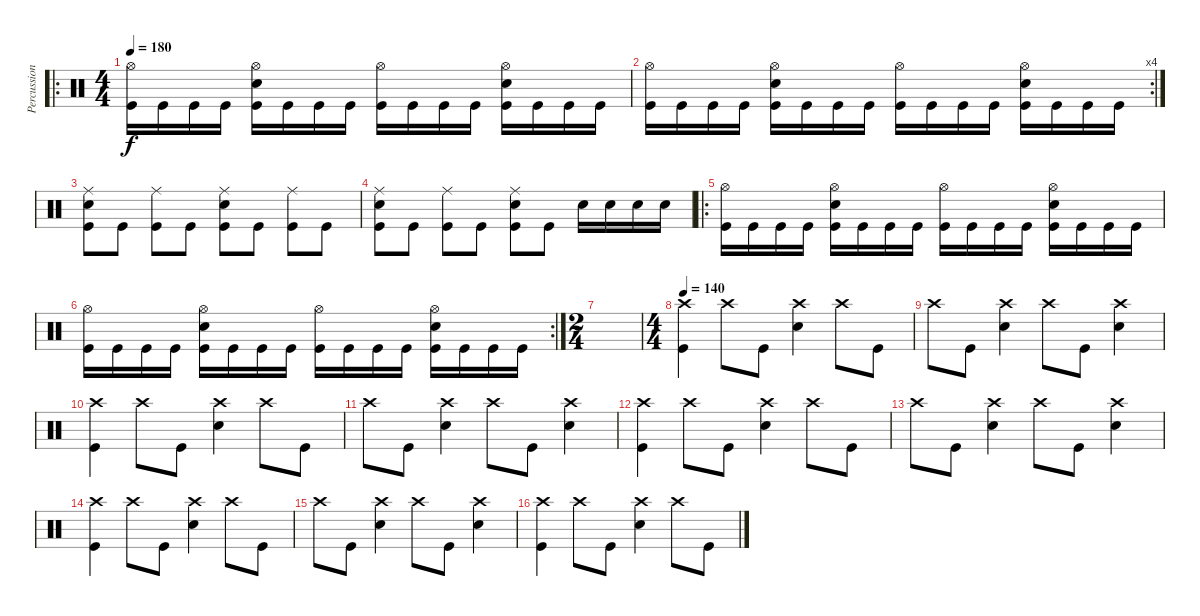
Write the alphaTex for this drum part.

\track ("Percussion" "Percussion") {instrument percussion}
\staff {score}
\articulation defaults
\ro
\ts (4 4)
\tempo 180
\clef neutral
\ks c
("Hi-Hat (open)" "Kick (hit)").16{dy f} "Kick (hit)".16 "Kick (hit)".16 "Kick (hit)".16 ("Hi-Hat (open)" "Snare (hit) 2" "Kick (hit)").16 "Kick (hit)".16 "Kick (hit)".16 "Kick (hit)".16 ("Hi-Hat (open)" "Kick (hit)").16 "Kick (hit)".16 "Kick (hit)".16 "Kick (hit)".16 ("Hi-Hat (open)" "Snare (hit) 2" "Kick (hit)").16 "Kick (hit)".16 "Kick (hit)".16 "Kick (hit)".16 |
\rc 4
("Hi-Hat (open)" "Kick (hit)").16 "Kick (hit)".16 "Kick (hit)".16 "Kick (hit)".16 ("Hi-Hat (open)" "Snare (hit) 2" "Kick (hit)").16 "Kick (hit)".16 "Kick (hit)".16 "Kick (hit)".16 ("Hi-Hat (open)" "Kick (hit)").16 "Kick (hit)".16 "Kick (hit)".16 "Kick (hit)".16 ("Hi-Hat (open)" "Snare (hit) 2" "Kick (hit)").16 "Kick (hit)".16 "Kick (hit)".16 "Kick (hit)".16 |
("Ride (middle)" "Snare (hit) 2" "Kick (hit)").8 "Kick (hit)".8 ("Ride (middle)" "Kick (hit)").8 "Kick (hit)".8 ("Ride (middle)" "Snare (hit) 2" "Kick (hit)").8 "Kick (hit)".8 ("Ride (middle)" "Kick (hit)").8 "Kick (hit)".8 |
("Ride (middle)" "Snare (hit) 2" "Kick (hit)").8 "Kick (hit)".8 ("Ride (middle)" "Kick (hit)").8 "Kick (hit)".8 ("Ride (middle)" "Snare (hit) 2" "Kick (hit)").8 "Kick (hit)".8 "Snare (hit) 2".16 "Snare (hit) 2".16 "Snare (hit) 2".16 "Snare (hit) 2".16 |
\ro
("Hi-Hat (open)" "Kick (hit)").16 "Kick (hit)".16 "Kick (hit)".16 "Kick (hit)".16 ("Hi-Hat (open)" "Snare (hit) 2" "Kick (hit)").16 "Kick (hit)".16 "Kick (hit)".16 "Kick (hit)".16 ("Hi-Hat (open)" "Kick (hit)").16 "Kick (hit)".16 "Kick (hit)".16 "Kick (hit)".16 ("Hi-Hat (open)" "Snare (hit) 2" "Kick (hit)").16 "Kick (hit)".16 "Kick (hit)".16 "Kick (hit)".16 |
\rc 2
("Hi-Hat (open)" "Kick (hit)").16 "Kick (hit)".16 "Kick (hit)".16 "Kick (hit)".16 ("Hi-Hat (open)" "Snare (hit) 2" "Kick (hit)").16 "Kick (hit)".16 "Kick (hit)".16 "Kick (hit)".16 ("Hi-Hat (open)" "Kick (hit)").16 "Kick (hit)".16 "Kick (hit)".16 "Kick (hit)".16 ("Hi-Hat (open)" "Snare (hit) 2" "Kick (hit)").16 "Kick (hit)".16 "Kick (hit)".16 "Kick (hit)".16 |
\ts (2 4)
|
\ts (4 4)
\tempo 140
("Crash high (hit)" "Kick (hit)").4 "Crash high (hit)".8 "Kick (hit)".8 ("Crash high (hit)" "Snare (hit) 2").4 "Crash high (hit)".8 "Kick (hit)".8 |
"Crash high (hit)".8 "Kick (hit)".8 ("Crash high (hit)" "Snare (hit) 2").4 "Crash high (hit)".8 "Kick (hit)".8 ("Crash high (hit)" "Snare (hit) 2").4 |
("Crash high (hit)" "Kick (hit)").4 "Crash high (hit)".8 "Kick (hit)".8 ("Crash high (hit)" "Snare (hit) 2").4 "Crash high (hit)".8 "Kick (hit)".8 |
"Crash high (hit)".8 "Kick (hit)".8 ("Crash high (hit)" "Snare (hit) 2").4 "Crash high (hit)".8 "Kick (hit)".8 ("Crash high (hit)" "Snare (hit) 2").4 |
("Crash high (hit)" "Kick (hit)").4 "Crash high (hit)".8 "Kick (hit)".8 ("Crash high (hit)" "Snare (hit) 2").4 "Crash high (hit)".8 "Kick (hit)".8 |
"Crash high (hit)".8 "Kick (hit)".8 ("Crash high (hit)" "Snare (hit) 2").4 "Crash high (hit)".8 "Kick (hit)".8 ("Crash high (hit)" "Snare (hit) 2").4 |
("Crash high (hit)" "Kick (hit)").4 "Crash high (hit)".8 "Kick (hit)".8 ("Crash high (hit)" "Snare (hit) 2").4 "Crash high (hit)".8 "Kick (hit)".8 |
"Crash high (hit)".8 "Kick (hit)".8 ("Crash high (hit)" "Snare (hit) 2").4 "Crash high (hit)".8 "Kick (hit)".8 ("Crash high (hit)" "Snare (hit) 2").4 |
("Crash high (hit)" "Kick (hit)").4 "Crash high (hit)".8 "Kick (hit)".8 ("Crash high (hit)" "Snare (hit) 2").4 "Crash high (hit)".8 "Kick (hit)".8
